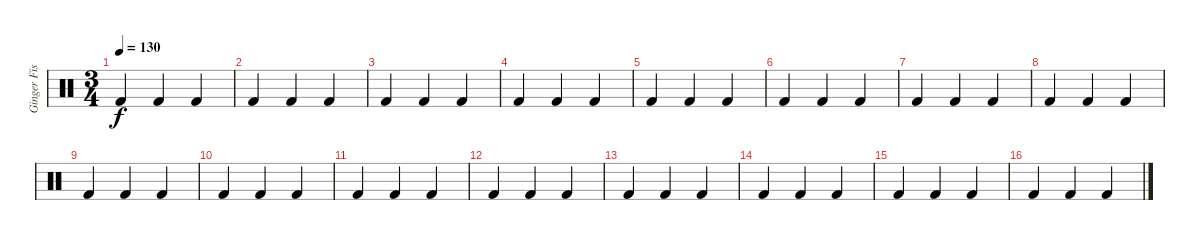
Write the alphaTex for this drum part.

\track ("Ginger Fish" "Ginger Fis") {instrument percussion}
\staff {score}
\articulation defaults
\ts (3 4)
\tempo 130
\clef neutral
\ks c "Kick (hit) 2".4{dy f} "Kick (hit) 2".4 "Kick (hit) 2".4
|
"Kick (hit) 2".4 "Kick (hit) 2".4 "Kick (hit) 2".4 |
"Kick (hit) 2".4 "Kick (hit) 2".4 "Kick (hit) 2".4 |
"Kick (hit) 2".4 "Kick (hit) 2".4 "Kick (hit) 2".4 |
"Kick (hit) 2".4 "Kick (hit) 2".4 "Kick (hit) 2".4 |
"Kick (hit) 2".4 "Kick (hit) 2".4 "Kick (hit) 2".4 |
"Kick (hit) 2".4 "Kick (hit) 2".4 "Kick (hit) 2".4 |
"Kick (hit) 2".4 "Kick (hit) 2".4 "Kick (hit) 2".4 |
"Kick (hit) 2".4 "Kick (hit) 2".4 "Kick (hit) 2".4 |
"Kick (hit) 2".4 "Kick (hit) 2".4 "Kick (hit) 2".4 |
"Kick (hit) 2".4 "Kick (hit) 2".4 "Kick (hit) 2".4 |
"Kick (hit) 2".4 "Kick (hit) 2".4 "Kick (hit) 2".4 |
"Kick (hit) 2".4 "Kick (hit) 2".4 "Kick (hit) 2".4 |
"Kick (hit) 2".4 "Kick (hit) 2".4 "Kick (hit) 2".4 |
"Kick (hit) 2".4 "Kick (hit) 2".4 "Kick (hit) 2".4 |
"Kick (hit) 2".4 "Kick (hit) 2".4 "Kick (hit) 2".4
